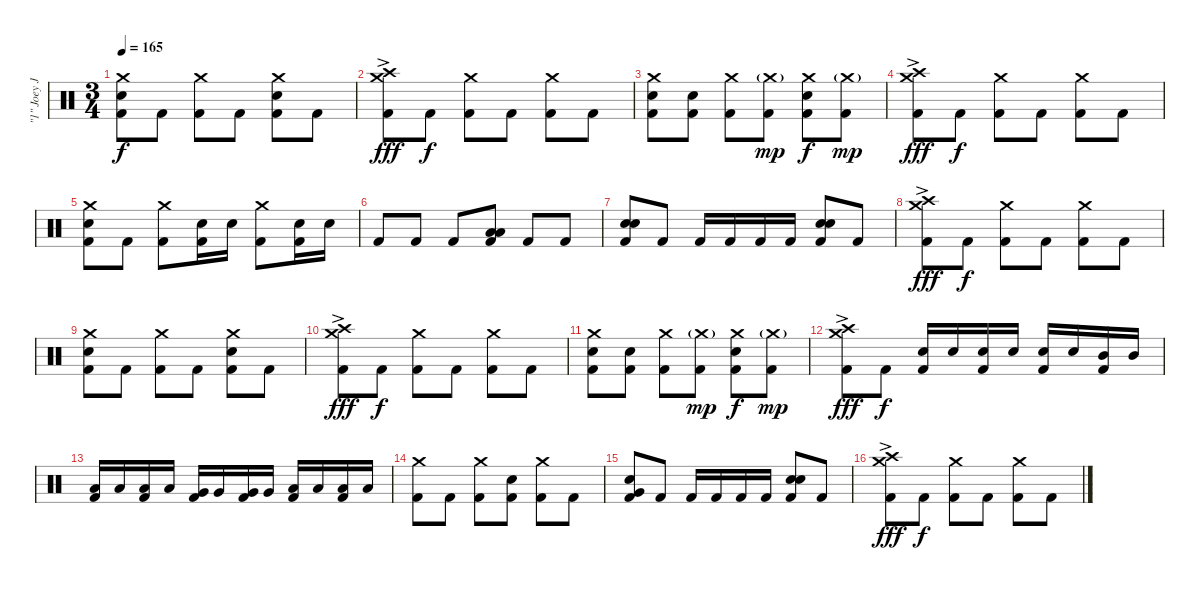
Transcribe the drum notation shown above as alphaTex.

\track ("\"1\" Joey Jordison (Drums)" "\"1\" Joey J") {instrument percussion}
\staff {score}
\articulation defaults
\ts (3 4)
\tempo 165
\clef neutral
\ks c
("Crash medium (hit)" "Electric Snare (hit)" "Kick (hit) 2").8{dy f} "Kick (hit) 2".8 ("Crash medium (hit)" "Kick (hit) 2").8 "Kick (hit) 2".8 ("Crash medium (hit)" "Electric Snare (hit)" "Kick (hit) 2").8 "Kick (hit) 2".8 |
("Crash high (hit)"{ac} "Crash medium (hit)" "Kick (hit) 2").8{dy fff} "Kick (hit) 2".8{dy f} ("Crash medium (hit)" "Kick (hit) 2").8 "Kick (hit) 2".8 ("Crash medium (hit)" "Kick (hit) 2").8 "Kick (hit) 2".8 |
("Crash medium (hit)" "Electric Snare (hit)" "Kick (hit) 2").8 ("Electric Snare (hit)" "Kick (hit) 2").8 ("Crash medium (hit)" "Kick (hit) 2").8 ("Crash medium (hit)"{g} "Kick (hit) 2").8{dy mp} ("Crash medium (hit)" "Electric Snare (hit)" "Kick (hit) 2").8{dy f} ("Crash medium (hit)"{g} "Kick (hit) 2").8{dy mp} |
("Crash high (hit)"{ac} "Crash medium (hit)" "Kick (hit) 2").8{dy fff} "Kick (hit) 2".8{dy f} ("Crash medium (hit)" "Kick (hit) 2").8 "Kick (hit) 2".8 ("Crash medium (hit)" "Kick (hit) 2").8 "Kick (hit) 2".8 |
("Crash medium (hit)" "Electric Snare (hit)" "Kick (hit) 2").8 "Kick (hit) 2".8 ("Crash medium (hit)" "Kick (hit) 2").8 ("Electric Snare (hit)" "Kick (hit) 2").16 "Electric Snare (hit)".16 ("Crash medium (hit)" "Kick (hit) 2").8 ("Electric Snare (hit)" "Kick (hit) 2").16 "Electric Snare (hit)".16 |
"Kick (hit) 2".8 "Kick (hit) 2".8 "Kick (hit) 2".8 ("Low Tom (hit)" "Low Tom (hit)" "Kick (hit) 2").8{bd 60} "Kick (hit) 2".8 "Kick (hit) 2".8 |
("Electric Snare (hit)" "Electric Snare (hit)" "Kick (hit) 2").8{bd 60} "Kick (hit) 2".8 "Kick (hit) 2".16 "Kick (hit) 2".16 "Kick (hit) 2".16 "Kick (hit) 2".16 ("Electric Snare (hit)" "Electric Snare (hit)" "Kick (hit) 2").8{bd 60} "Kick (hit) 2".8 |
("Crash high (hit)"{ac} "Crash medium (hit)" "Kick (hit) 2").8{dy fff} "Kick (hit) 2".8{dy f} ("Crash medium (hit)" "Kick (hit) 2").8 "Kick (hit) 2".8 ("Crash medium (hit)" "Kick (hit) 2").8 "Kick (hit) 2".8 |
("Crash medium (hit)" "Electric Snare (hit)" "Kick (hit) 2").8 "Kick (hit) 2".8 ("Crash medium (hit)" "Kick (hit) 2").8 "Kick (hit) 2".8 ("Crash medium (hit)" "Electric Snare (hit)" "Kick (hit) 2").8 "Kick (hit) 2".8 |
("Crash high (hit)"{ac} "Crash medium (hit)" "Kick (hit) 2").8{dy fff} "Kick (hit) 2".8{dy f} ("Crash medium (hit)" "Kick (hit) 2").8 "Kick (hit) 2".8 ("Crash medium (hit)" "Kick (hit) 2").8 "Kick (hit) 2".8 |
("Crash medium (hit)" "Electric Snare (hit)" "Kick (hit) 2").8 ("Electric Snare (hit)" "Kick (hit) 2").8 ("Crash medium (hit)" "Kick (hit) 2").8 ("Crash medium (hit)"{g} "Kick (hit) 2").8{dy mp} ("Crash medium (hit)" "Electric Snare (hit)" "Kick (hit) 2").8{dy f} ("Crash medium (hit)"{g} "Kick (hit) 2").8{dy mp} |
("Crash high (hit)"{ac} "Crash medium (hit)" "Kick (hit) 2").8{dy fff} "Kick (hit) 2".8{dy f} ("Electric Snare (hit)" "Kick (hit) 2").16 "Electric Snare (hit)".16 ("Electric Snare (hit)" "Kick (hit) 2").16 "Electric Snare (hit)".16 ("Electric Snare (hit)" "Kick (hit) 2").16 "Electric Snare (hit)".16 ("Mid Tom (hit)" "Kick (hit) 2").16 "Mid Tom (hit)".16 |
("Low Tom (hit)" "Kick (hit) 2").16 "Low Tom (hit)".16 ("Low Tom (hit)" "Kick (hit) 2").16 "Low Tom (hit)".16 ("Very Low Tom (hit)" "Kick (hit) 2").16 "Very Low Tom (hit)".16 ("Very Low Tom (hit)" "Kick (hit) 2").16 "Very Low Tom (hit)".16 ("Low Floor Tom (hit)" "Kick (hit) 2").16 "Low Floor Tom (hit)".16 ("Low Floor Tom (hit)" "Kick (hit) 2").16 "Low Floor Tom (hit)".16 |
("Crash medium (hit)" "Kick (hit) 2").8 "Kick (hit) 2".8 ("Crash medium (hit)" "Kick (hit) 2").8 ("Electric Snare (hit)" "Kick (hit) 2").8 ("Crash medium (hit)" "Kick (hit) 2").8 "Kick (hit) 2".8 |
("Electric Snare (hit)" "Very Low Tom (hit)" "Kick (hit) 2").8 "Kick (hit) 2".8 "Kick (hit) 2".16 "Kick (hit) 2".16 "Kick (hit) 2".16 "Kick (hit) 2".16 ("Electric Snare (hit)" "Electric Snare (hit)" "Kick (hit) 2").8{bd 60} "Kick (hit) 2".8 |
("Crash high (hit)"{ac} "Crash medium (hit)" "Kick (hit) 2").8{dy fff} "Kick (hit) 2".8{dy f} ("Crash medium (hit)" "Kick (hit) 2").8 "Kick (hit) 2".8 ("Crash medium (hit)" "Kick (hit) 2").8 "Kick (hit) 2".8
